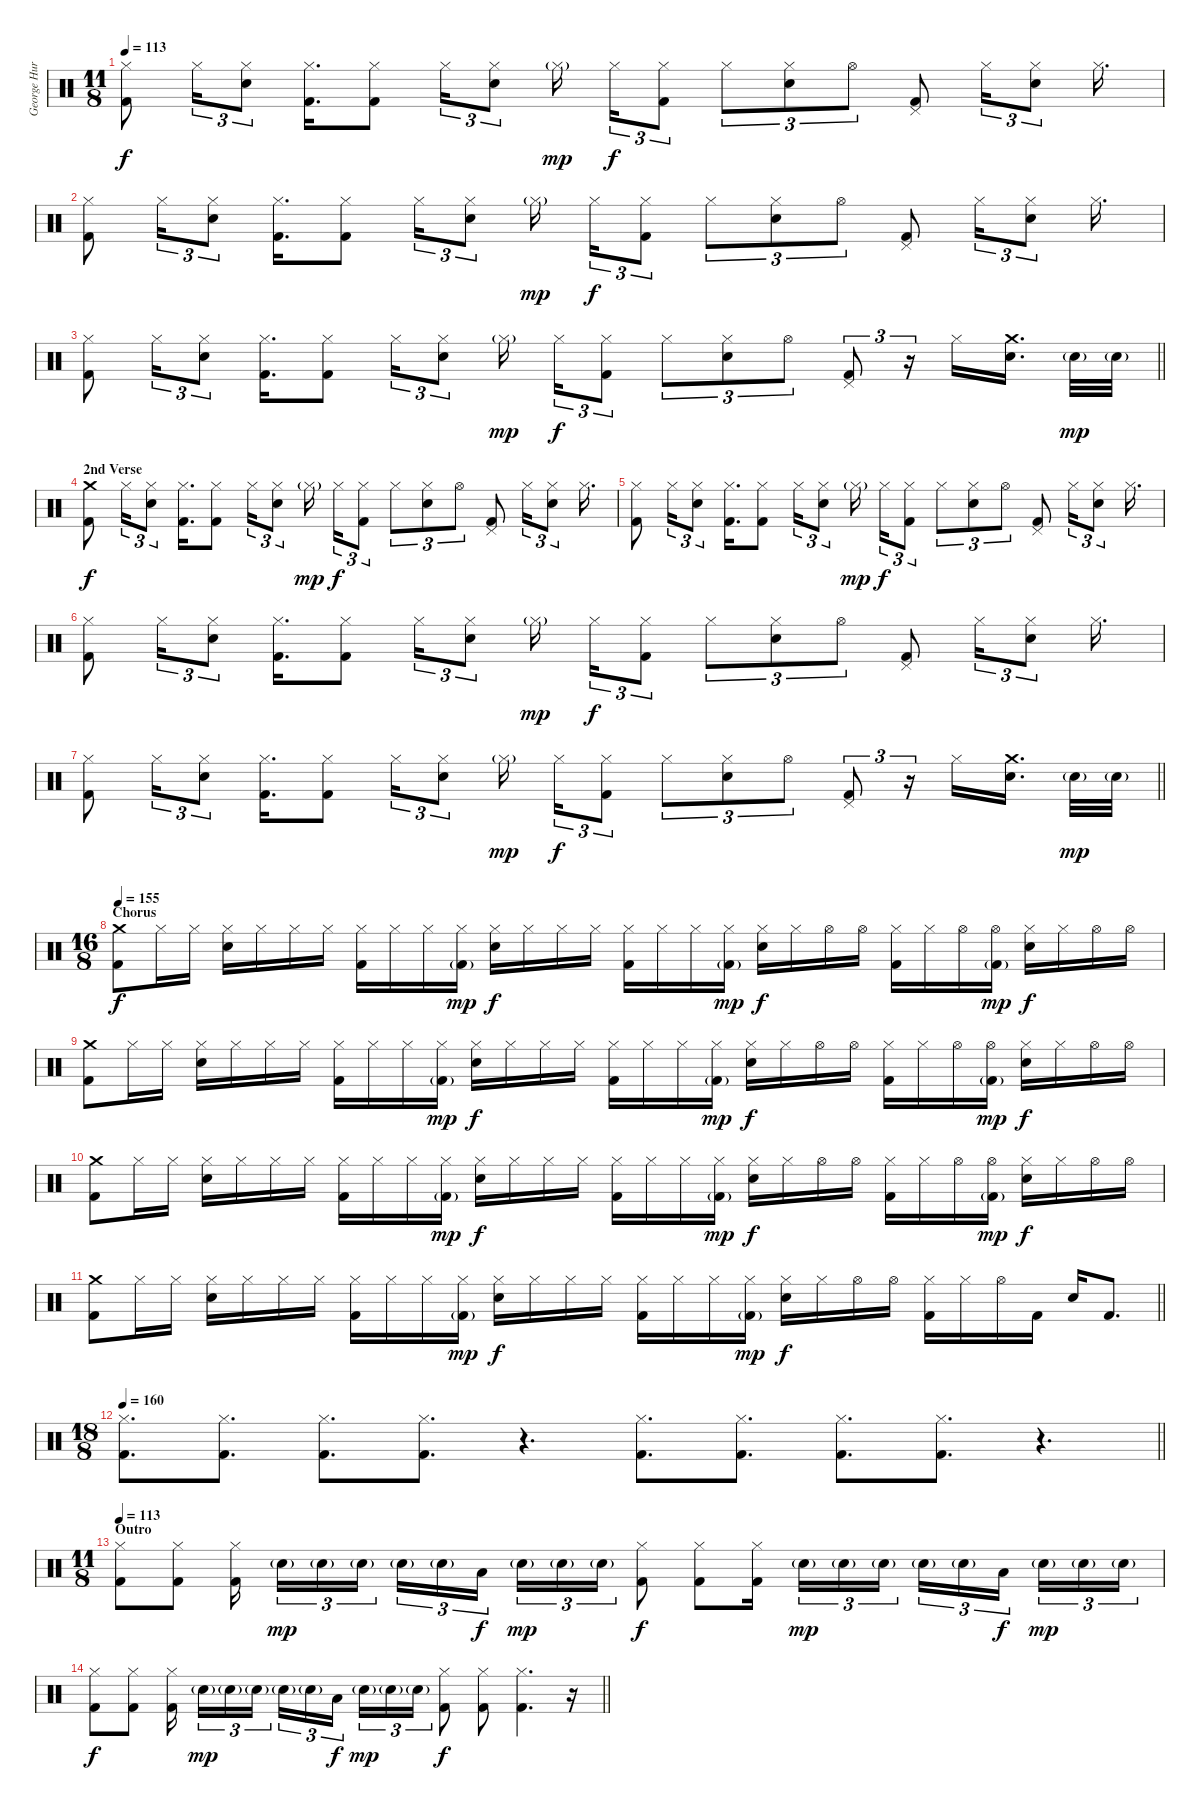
\track ("George Hurley [Drums]" "George Hur") {instrument percussion}
\staff
\articulation defaults
\ts (11 8)
\tempo 113
\clef neutral
\ks c
("Hi-Hat (closed)" "Kick (hit) 2").8{dy f} "Hi-Hat (closed)".16{tu (3 2)} ("Hi-Hat (closed)" "Electric Snare (hit)").8{tu (3 2)} ("Hi-Hat (closed)" "Kick (hit) 2").16{d} ("Hi-Hat (closed)" "Kick (hit) 2").8 "Hi-Hat (closed)".16{tu (3 2)} ("Hi-Hat (closed)" "Electric Snare (hit)").8{tu (3 2)} "Hi-Hat (closed)"{g}.16{dy mp} "Hi-Hat (closed)".16{tu (3 2) dy f} ("Hi-Hat (closed)" "Kick (hit) 2").8{tu (3 2)} "Hi-Hat (closed)".8{tu (3 2)} ("Hi-Hat (closed)" "Electric Snare (hit)").8{tu (3 2)} "Hi-Hat (open)".8{tu (3 2)} ("Pedal Hi-Hat (hit)" "Kick (hit) 2").8 "Hi-Hat (closed)".16{tu (3 2)} ("Hi-Hat (closed)" "Electric Snare (hit)").8{tu (3 2)} "Hi-Hat (closed)".16{d} |
("Hi-Hat (closed)" "Kick (hit) 2").8 "Hi-Hat (closed)".16{tu (3 2)} ("Hi-Hat (closed)" "Electric Snare (hit)").8{tu (3 2)} ("Hi-Hat (closed)" "Kick (hit) 2").16{d} ("Hi-Hat (closed)" "Kick (hit) 2").8 "Hi-Hat (closed)".16{tu (3 2)} ("Hi-Hat (closed)" "Electric Snare (hit)").8{tu (3 2)} "Hi-Hat (closed)"{g}.16{dy mp} "Hi-Hat (closed)".16{tu (3 2) dy f} ("Hi-Hat (closed)" "Kick (hit) 2").8{tu (3 2)} "Hi-Hat (closed)".8{tu (3 2)} ("Hi-Hat (closed)" "Electric Snare (hit)").8{tu (3 2)} "Hi-Hat (open)".8{tu (3 2)} ("Pedal Hi-Hat (hit)" "Kick (hit) 2").8 "Hi-Hat (closed)".16{tu (3 2)} ("Hi-Hat (closed)" "Electric Snare (hit)").8{tu (3 2)} "Hi-Hat (closed)".16{d} |
\barLineRight lightlight
("Hi-Hat (closed)" "Kick (hit) 2").8 "Hi-Hat (closed)".16{tu (3 2)} ("Hi-Hat (closed)" "Electric Snare (hit)").8{tu (3 2)} ("Hi-Hat (closed)" "Kick (hit) 2").16{d} ("Hi-Hat (closed)" "Kick (hit) 2").8 "Hi-Hat (closed)".16{tu (3 2)} ("Hi-Hat (closed)" "Electric Snare (hit)").8{tu (3 2)} "Hi-Hat (closed)"{g}.16{dy mp} "Hi-Hat (closed)".16{tu (3 2) dy f} ("Hi-Hat (closed)" "Kick (hit) 2").8{tu (3 2)} "Hi-Hat (closed)".8{tu (3 2)} ("Hi-Hat (closed)" "Electric Snare (hit)").8{tu (3 2)} "Hi-Hat (open)".8{tu (3 2)} ("Pedal Hi-Hat (hit)" "Kick (hit) 2").8{tu (3 2)} r.16{tu (3 2)} "Hi-Hat (closed)".16 ("Crash medium (hit)" "Electric Snare (hit)").16{d} "Electric Snare (hit)"{g}.32{dy mp} "Electric Snare (hit)"{g}.32 |
\section ("" "2nd Verse")
("Crash medium (hit)" "Kick (hit) 2").8{dy f} "Hi-Hat (closed)".16{tu (3 2)} ("Hi-Hat (closed)" "Electric Snare (hit)").8{tu (3 2)} ("Hi-Hat (closed)" "Kick (hit) 2").16{d} ("Hi-Hat (closed)" "Kick (hit) 2").8 "Hi-Hat (closed)".16{tu (3 2)} ("Hi-Hat (closed)" "Electric Snare (hit)").8{tu (3 2)} "Hi-Hat (closed)"{g}.16{dy mp} "Hi-Hat (closed)".16{tu (3 2) dy f} ("Hi-Hat (closed)" "Kick (hit) 2").8{tu (3 2)} "Hi-Hat (closed)".8{tu (3 2)} ("Hi-Hat (closed)" "Electric Snare (hit)").8{tu (3 2)} "Hi-Hat (open)".8{tu (3 2)} ("Pedal Hi-Hat (hit)" "Kick (hit) 2").8 "Hi-Hat (closed)".16{tu (3 2)} ("Hi-Hat (closed)" "Electric Snare (hit)").8{tu (3 2)} "Hi-Hat (closed)".16{d} |
("Hi-Hat (closed)" "Kick (hit) 2").8 "Hi-Hat (closed)".16{tu (3 2)} ("Hi-Hat (closed)" "Electric Snare (hit)").8{tu (3 2)} ("Hi-Hat (closed)" "Kick (hit) 2").16{d} ("Hi-Hat (closed)" "Kick (hit) 2").8 "Hi-Hat (closed)".16{tu (3 2)} ("Hi-Hat (closed)" "Electric Snare (hit)").8{tu (3 2)} "Hi-Hat (closed)"{g}.16{dy mp} "Hi-Hat (closed)".16{tu (3 2) dy f} ("Hi-Hat (closed)" "Kick (hit) 2").8{tu (3 2)} "Hi-Hat (closed)".8{tu (3 2)} ("Hi-Hat (closed)" "Electric Snare (hit)").8{tu (3 2)} "Hi-Hat (open)".8{tu (3 2)} ("Pedal Hi-Hat (hit)" "Kick (hit) 2").8 "Hi-Hat (closed)".16{tu (3 2)} ("Hi-Hat (closed)" "Electric Snare (hit)").8{tu (3 2)} "Hi-Hat (closed)".16{d} |
("Hi-Hat (closed)" "Kick (hit) 2").8 "Hi-Hat (closed)".16{tu (3 2)} ("Hi-Hat (closed)" "Electric Snare (hit)").8{tu (3 2)} ("Hi-Hat (closed)" "Kick (hit) 2").16{d} ("Hi-Hat (closed)" "Kick (hit) 2").8 "Hi-Hat (closed)".16{tu (3 2)} ("Hi-Hat (closed)" "Electric Snare (hit)").8{tu (3 2)} "Hi-Hat (closed)"{g}.16{dy mp} "Hi-Hat (closed)".16{tu (3 2) dy f} ("Hi-Hat (closed)" "Kick (hit) 2").8{tu (3 2)} "Hi-Hat (closed)".8{tu (3 2)} ("Hi-Hat (closed)" "Electric Snare (hit)").8{tu (3 2)} "Hi-Hat (open)".8{tu (3 2)} ("Pedal Hi-Hat (hit)" "Kick (hit) 2").8 "Hi-Hat (closed)".16{tu (3 2)} ("Hi-Hat (closed)" "Electric Snare (hit)").8{tu (3 2)} "Hi-Hat (closed)".16{d} |
\barLineRight lightlight
("Hi-Hat (closed)" "Kick (hit) 2").8 "Hi-Hat (closed)".16{tu (3 2)} ("Hi-Hat (closed)" "Electric Snare (hit)").8{tu (3 2)} ("Hi-Hat (closed)" "Kick (hit) 2").16{d} ("Hi-Hat (closed)" "Kick (hit) 2").8 "Hi-Hat (closed)".16{tu (3 2)} ("Hi-Hat (closed)" "Electric Snare (hit)").8{tu (3 2)} "Hi-Hat (closed)"{g}.16{dy mp} "Hi-Hat (closed)".16{tu (3 2) dy f} ("Hi-Hat (closed)" "Kick (hit) 2").8{tu (3 2)} "Hi-Hat (closed)".8{tu (3 2)} ("Hi-Hat (closed)" "Electric Snare (hit)").8{tu (3 2)} "Hi-Hat (open)".8{tu (3 2)} ("Pedal Hi-Hat (hit)" "Kick (hit) 2").8{tu (3 2)} r.16{tu (3 2)} "Hi-Hat (closed)".16 ("Crash medium (hit)" "Electric Snare (hit)").16{d} "Electric Snare (hit)"{g}.32{dy mp} "Electric Snare (hit)"{g}.32 |
\ts (16 8)
\section ("" "Chorus")
\tempo 155
("Crash medium (hit)" "Kick (hit) 2").8{dy f} "Hi-Hat (closed)".16 "Hi-Hat (closed)".16 ("Hi-Hat (closed)" "Electric Snare (hit)").16 "Hi-Hat (closed)".16 "Hi-Hat (closed)".16 "Hi-Hat (closed)".16 ("Hi-Hat (closed)" "Kick (hit) 2").16 "Hi-Hat (closed)".16 "Hi-Hat (closed)".16 ("Hi-Hat (closed)" "Kick (hit) 2"{g}).16{dy mp} ("Hi-Hat (closed)" "Electric Snare (hit)").16{dy f} "Hi-Hat (closed)".16 "Hi-Hat (closed)".16 "Hi-Hat (closed)".16 ("Hi-Hat (closed)" "Kick (hit) 2").16 "Hi-Hat (closed)".16 "Hi-Hat (closed)".16 ("Hi-Hat (closed)" "Kick (hit) 2"{g}).16{dy mp} ("Hi-Hat (closed)" "Electric Snare (hit)").16{dy f} "Hi-Hat (closed)".16 "Hi-Hat (open)".16 "Hi-Hat (open)".16 ("Hi-Hat (closed)" "Kick (hit) 2").16 "Hi-Hat (closed)".16 "Hi-Hat (open)".16 ("Hi-Hat (open)" "Kick (hit) 2"{g}).16{dy mp} ("Hi-Hat (closed)" "Electric Snare (hit)").16{dy f} "Hi-Hat (closed)".16 "Hi-Hat (open)".16 "Hi-Hat (open)".16 |
("Crash medium (hit)" "Kick (hit) 2").8 "Hi-Hat (closed)".16 "Hi-Hat (closed)".16 ("Hi-Hat (closed)" "Electric Snare (hit)").16 "Hi-Hat (closed)".16 "Hi-Hat (closed)".16 "Hi-Hat (closed)".16 ("Hi-Hat (closed)" "Kick (hit) 2").16 "Hi-Hat (closed)".16 "Hi-Hat (closed)".16 ("Hi-Hat (closed)" "Kick (hit) 2"{g}).16{dy mp} ("Hi-Hat (closed)" "Electric Snare (hit)").16{dy f} "Hi-Hat (closed)".16 "Hi-Hat (closed)".16 "Hi-Hat (closed)".16 ("Hi-Hat (closed)" "Kick (hit) 2").16 "Hi-Hat (closed)".16 "Hi-Hat (closed)".16 ("Hi-Hat (closed)" "Kick (hit) 2"{g}).16{dy mp} ("Hi-Hat (closed)" "Electric Snare (hit)").16{dy f} "Hi-Hat (closed)".16 "Hi-Hat (open)".16 "Hi-Hat (open)".16 ("Hi-Hat (closed)" "Kick (hit) 2").16 "Hi-Hat (closed)".16 "Hi-Hat (open)".16 ("Hi-Hat (open)" "Kick (hit) 2"{g}).16{dy mp} ("Hi-Hat (closed)" "Electric Snare (hit)").16{dy f} "Hi-Hat (closed)".16 "Hi-Hat (open)".16 "Hi-Hat (open)".16 |
("Crash medium (hit)" "Kick (hit) 2").8 "Hi-Hat (closed)".16 "Hi-Hat (closed)".16 ("Hi-Hat (closed)" "Electric Snare (hit)").16 "Hi-Hat (closed)".16 "Hi-Hat (closed)".16 "Hi-Hat (closed)".16 ("Hi-Hat (closed)" "Kick (hit) 2").16 "Hi-Hat (closed)".16 "Hi-Hat (closed)".16 ("Hi-Hat (closed)" "Kick (hit) 2"{g}).16{dy mp} ("Hi-Hat (closed)" "Electric Snare (hit)").16{dy f} "Hi-Hat (closed)".16 "Hi-Hat (closed)".16 "Hi-Hat (closed)".16 ("Hi-Hat (closed)" "Kick (hit) 2").16 "Hi-Hat (closed)".16 "Hi-Hat (closed)".16 ("Hi-Hat (closed)" "Kick (hit) 2"{g}).16{dy mp} ("Hi-Hat (closed)" "Electric Snare (hit)").16{dy f} "Hi-Hat (closed)".16 "Hi-Hat (open)".16 "Hi-Hat (open)".16 ("Hi-Hat (closed)" "Kick (hit) 2").16 "Hi-Hat (closed)".16 "Hi-Hat (open)".16 ("Hi-Hat (open)" "Kick (hit) 2"{g}).16{dy mp} ("Hi-Hat (closed)" "Electric Snare (hit)").16{dy f} "Hi-Hat (closed)".16 "Hi-Hat (open)".16 "Hi-Hat (open)".16 |
\barLineRight lightlight
("Crash medium (hit)" "Kick (hit) 2").8 "Hi-Hat (closed)".16 "Hi-Hat (closed)".16 ("Hi-Hat (closed)" "Electric Snare (hit)").16 "Hi-Hat (closed)".16 "Hi-Hat (closed)".16 "Hi-Hat (closed)".16 ("Hi-Hat (closed)" "Kick (hit) 2").16 "Hi-Hat (closed)".16 "Hi-Hat (closed)".16 ("Hi-Hat (closed)" "Kick (hit) 2"{g}).16{dy mp} ("Hi-Hat (closed)" "Electric Snare (hit)").16{dy f} "Hi-Hat (closed)".16 "Hi-Hat (closed)".16 "Hi-Hat (closed)".16 ("Hi-Hat (closed)" "Kick (hit) 2").16 "Hi-Hat (closed)".16 "Hi-Hat (closed)".16 ("Hi-Hat (closed)" "Kick (hit) 2"{g}).16{dy mp} ("Hi-Hat (closed)" "Electric Snare (hit)").16{dy f} "Hi-Hat (closed)".16 "Hi-Hat (open)".16 "Hi-Hat (open)".16 ("Hi-Hat (closed)" "Kick (hit) 2").16 "Hi-Hat (closed)".16 "Hi-Hat (open)".16 "Kick (hit) 2".16 "Electric Snare (hit)".16 "Kick (hit) 2".8{d} |
\ts (18 8)
\tempo 160
\barLineRight lightlight
("Hi-Hat (closed)" "Kick (hit) 2").8{d} ("Hi-Hat (closed)" "Kick (hit) 2").8{d} ("Hi-Hat (closed)" "Kick (hit) 2").8{d} ("Hi-Hat (closed)" "Kick (hit) 2").8{d} r.4{d} ("Hi-Hat (closed)" "Kick (hit) 2").8{d} ("Hi-Hat (closed)" "Kick (hit) 2").8{d} ("Hi-Hat (closed)" "Kick (hit) 2").8{d} ("Hi-Hat (closed)" "Kick (hit) 2").8{d} r.4{d} |
\ts (11 8)
\section ("" "Outro")
\tempo 113
("Hi-Hat (closed)" "Kick (hit) 2").8 ("Hi-Hat (closed)" "Kick (hit) 2").8 ("Hi-Hat (closed)" "Kick (hit) 2").16{beam splitsecondary} "Snare (hit) 2"{g}.16{tu (3 2) dy mp} "Snare (hit) 2"{g}.16{tu (3 2)} "Snare (hit) 2"{g}.16{tu (3 2) beam splitsecondary} "Snare (hit) 2"{g}.16{tu (3 2)} "Snare (hit) 2"{g}.16{tu (3 2)} "Low Tom (hit)".16{tu (3 2) dy f beam splitsecondary} "Snare (hit) 2"{g}.16{tu (3 2) dy mp} "Snare (hit) 2"{g}.16{tu (3 2)} "Snare (hit) 2"{g}.16{tu (3 2)} ("Hi-Hat (closed)" "Kick (hit) 2").8{dy f} ("Hi-Hat (closed)" "Kick (hit) 2").8 ("Hi-Hat (closed)" "Kick (hit) 2").16 "Snare (hit) 2"{g}.16{tu (3 2) dy mp} "Snare (hit) 2"{g}.16{tu (3 2)} "Snare (hit) 2"{g}.16{tu (3 2)} "Snare (hit) 2"{g}.16{tu (3 2)} "Snare (hit) 2"{g}.16{tu (3 2)} "Low Tom (hit)".16{tu (3 2) dy f} "Snare (hit) 2"{g}.16{tu (3 2) dy mp} "Snare (hit) 2"{g}.16{tu (3 2)} "Snare (hit) 2"{g}.16{tu (3 2)} |
\barLineRight lightlight
("Hi-Hat (closed)" "Kick (hit) 2").8{dy f} ("Hi-Hat (closed)" "Kick (hit) 2").8 ("Hi-Hat (closed)" "Kick (hit) 2").16{beam splitsecondary} "Snare (hit) 2"{g}.16{tu (3 2) dy mp} "Snare (hit) 2"{g}.16{tu (3 2)} "Snare (hit) 2"{g}.16{tu (3 2) beam splitsecondary} "Snare (hit) 2"{g}.16{tu (3 2)} "Snare (hit) 2"{g}.16{tu (3 2)} "Low Tom (hit)".16{tu (3 2) dy f beam splitsecondary} "Snare (hit) 2"{g}.16{tu (3 2) dy mp} "Snare (hit) 2"{g}.16{tu (3 2)} "Snare (hit) 2"{g}.16{tu (3 2)} ("Hi-Hat (closed)" "Kick (hit) 2").8{dy f} ("Hi-Hat (closed)" "Kick (hit) 2").8 ("Hi-Hat (closed)" "Kick (hit) 2").4{d} r.16
